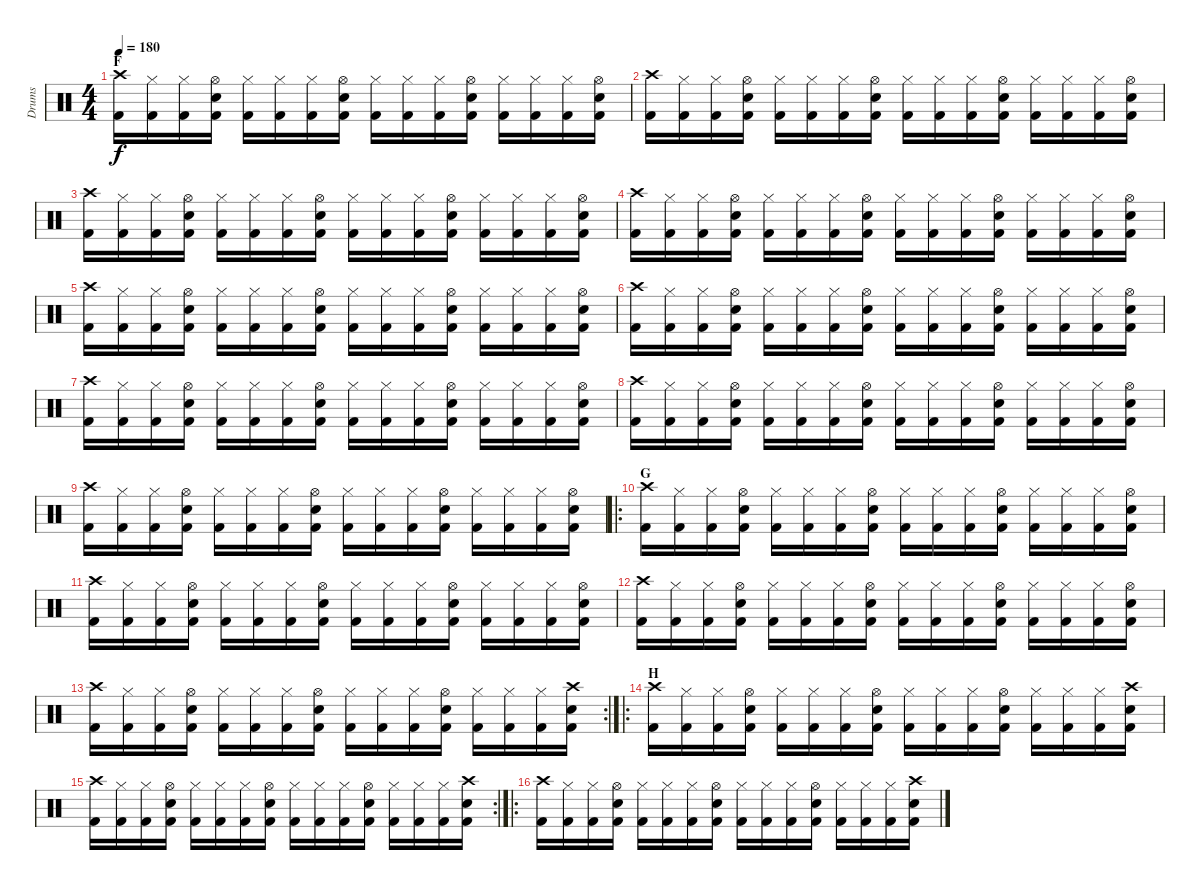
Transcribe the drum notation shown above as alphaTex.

\track ("Drums" "Drums") {instrument percussion}
\staff {score}
\articulation defaults
\ts (4 4)
\section ("" "F")
\tempo 180
\clef neutral
\ks c
("Crash high (hit)" "Kick (hit) 2").16{dy f} ("Hi-Hat (closed)" "Kick (hit) 2").16 ("Hi-Hat (closed)" "Kick (hit) 2").16 ("Hi-Hat (open)" "Snare (hit) 2" "Kick (hit) 2").16 ("Hi-Hat (closed)" "Kick (hit) 2").16 ("Hi-Hat (closed)" "Kick (hit) 2").16 ("Hi-Hat (closed)" "Kick (hit) 2").16 ("Hi-Hat (open)" "Snare (hit) 2" "Kick (hit) 2").16 ("Hi-Hat (closed)" "Kick (hit) 2").16 ("Hi-Hat (closed)" "Kick (hit) 2").16 ("Hi-Hat (closed)" "Kick (hit) 2").16 ("Hi-Hat (open)" "Snare (hit) 2" "Kick (hit) 2").16 ("Hi-Hat (closed)" "Kick (hit) 2").16 ("Hi-Hat (closed)" "Kick (hit) 2").16 ("Hi-Hat (closed)" "Kick (hit) 2").16 ("Hi-Hat (open)" "Snare (hit) 2" "Kick (hit) 2").16 |
("Crash high (hit)" "Kick (hit) 2").16 ("Hi-Hat (closed)" "Kick (hit) 2").16 ("Hi-Hat (closed)" "Kick (hit) 2").16 ("Hi-Hat (open)" "Snare (hit) 2" "Kick (hit) 2").16 ("Hi-Hat (closed)" "Kick (hit) 2").16 ("Hi-Hat (closed)" "Kick (hit) 2").16 ("Hi-Hat (closed)" "Kick (hit) 2").16 ("Hi-Hat (open)" "Snare (hit) 2" "Kick (hit) 2").16 ("Hi-Hat (closed)" "Kick (hit) 2").16 ("Hi-Hat (closed)" "Kick (hit) 2").16 ("Hi-Hat (closed)" "Kick (hit) 2").16 ("Hi-Hat (open)" "Snare (hit) 2" "Kick (hit) 2").16 ("Hi-Hat (closed)" "Kick (hit) 2").16 ("Hi-Hat (closed)" "Kick (hit) 2").16 ("Hi-Hat (closed)" "Kick (hit) 2").16 ("Hi-Hat (open)" "Snare (hit) 2" "Kick (hit) 2").16 |
("Crash high (hit)" "Kick (hit) 2").16 ("Hi-Hat (closed)" "Kick (hit) 2").16 ("Hi-Hat (closed)" "Kick (hit) 2").16 ("Hi-Hat (open)" "Snare (hit) 2" "Kick (hit) 2").16 ("Hi-Hat (closed)" "Kick (hit) 2").16 ("Hi-Hat (closed)" "Kick (hit) 2").16 ("Hi-Hat (closed)" "Kick (hit) 2").16 ("Hi-Hat (open)" "Snare (hit) 2" "Kick (hit) 2").16 ("Hi-Hat (closed)" "Kick (hit) 2").16 ("Hi-Hat (closed)" "Kick (hit) 2").16 ("Hi-Hat (closed)" "Kick (hit) 2").16 ("Hi-Hat (open)" "Snare (hit) 2" "Kick (hit) 2").16 ("Hi-Hat (closed)" "Kick (hit) 2").16 ("Hi-Hat (closed)" "Kick (hit) 2").16 ("Hi-Hat (closed)" "Kick (hit) 2").16 ("Hi-Hat (open)" "Snare (hit) 2" "Kick (hit) 2").16 |
("Crash high (hit)" "Kick (hit) 2").16 ("Hi-Hat (closed)" "Kick (hit) 2").16 ("Hi-Hat (closed)" "Kick (hit) 2").16 ("Hi-Hat (open)" "Snare (hit) 2" "Kick (hit) 2").16 ("Hi-Hat (closed)" "Kick (hit) 2").16 ("Hi-Hat (closed)" "Kick (hit) 2").16 ("Hi-Hat (closed)" "Kick (hit) 2").16 ("Hi-Hat (open)" "Snare (hit) 2" "Kick (hit) 2").16 ("Hi-Hat (closed)" "Kick (hit) 2").16 ("Hi-Hat (closed)" "Kick (hit) 2").16 ("Hi-Hat (closed)" "Kick (hit) 2").16 ("Hi-Hat (open)" "Snare (hit) 2" "Kick (hit) 2").16 ("Hi-Hat (closed)" "Kick (hit) 2").16 ("Hi-Hat (closed)" "Kick (hit) 2").16 ("Hi-Hat (closed)" "Kick (hit) 2").16 ("Hi-Hat (open)" "Snare (hit) 2" "Kick (hit) 2").16 |
("Crash high (hit)" "Kick (hit) 2").16 ("Hi-Hat (closed)" "Kick (hit) 2").16 ("Hi-Hat (closed)" "Kick (hit) 2").16 ("Hi-Hat (open)" "Snare (hit) 2" "Kick (hit) 2").16 ("Hi-Hat (closed)" "Kick (hit) 2").16 ("Hi-Hat (closed)" "Kick (hit) 2").16 ("Hi-Hat (closed)" "Kick (hit) 2").16 ("Hi-Hat (open)" "Snare (hit) 2" "Kick (hit) 2").16 ("Hi-Hat (closed)" "Kick (hit) 2").16 ("Hi-Hat (closed)" "Kick (hit) 2").16 ("Hi-Hat (closed)" "Kick (hit) 2").16 ("Hi-Hat (open)" "Snare (hit) 2" "Kick (hit) 2").16 ("Hi-Hat (closed)" "Kick (hit) 2").16 ("Hi-Hat (closed)" "Kick (hit) 2").16 ("Hi-Hat (closed)" "Kick (hit) 2").16 ("Hi-Hat (open)" "Snare (hit) 2" "Kick (hit) 2").16 |
("Crash high (hit)" "Kick (hit) 2").16 ("Hi-Hat (closed)" "Kick (hit) 2").16 ("Hi-Hat (closed)" "Kick (hit) 2").16 ("Hi-Hat (open)" "Snare (hit) 2" "Kick (hit) 2").16 ("Hi-Hat (closed)" "Kick (hit) 2").16 ("Hi-Hat (closed)" "Kick (hit) 2").16 ("Hi-Hat (closed)" "Kick (hit) 2").16 ("Hi-Hat (open)" "Snare (hit) 2" "Kick (hit) 2").16 ("Hi-Hat (closed)" "Kick (hit) 2").16 ("Hi-Hat (closed)" "Kick (hit) 2").16 ("Hi-Hat (closed)" "Kick (hit) 2").16 ("Hi-Hat (open)" "Snare (hit) 2" "Kick (hit) 2").16 ("Hi-Hat (closed)" "Kick (hit) 2").16 ("Hi-Hat (closed)" "Kick (hit) 2").16 ("Hi-Hat (closed)" "Kick (hit) 2").16 ("Hi-Hat (open)" "Snare (hit) 2" "Kick (hit) 2").16 |
("Crash high (hit)" "Kick (hit) 2").16 ("Hi-Hat (closed)" "Kick (hit) 2").16 ("Hi-Hat (closed)" "Kick (hit) 2").16 ("Hi-Hat (open)" "Snare (hit) 2" "Kick (hit) 2").16 ("Hi-Hat (closed)" "Kick (hit) 2").16 ("Hi-Hat (closed)" "Kick (hit) 2").16 ("Hi-Hat (closed)" "Kick (hit) 2").16 ("Hi-Hat (open)" "Snare (hit) 2" "Kick (hit) 2").16 ("Hi-Hat (closed)" "Kick (hit) 2").16 ("Hi-Hat (closed)" "Kick (hit) 2").16 ("Hi-Hat (closed)" "Kick (hit) 2").16 ("Hi-Hat (open)" "Snare (hit) 2" "Kick (hit) 2").16 ("Hi-Hat (closed)" "Kick (hit) 2").16 ("Hi-Hat (closed)" "Kick (hit) 2").16 ("Hi-Hat (closed)" "Kick (hit) 2").16 ("Hi-Hat (open)" "Snare (hit) 2" "Kick (hit) 2").16 |
("Crash high (hit)" "Kick (hit) 2").16 ("Hi-Hat (closed)" "Kick (hit) 2").16 ("Hi-Hat (closed)" "Kick (hit) 2").16 ("Hi-Hat (open)" "Snare (hit) 2" "Kick (hit) 2").16 ("Hi-Hat (closed)" "Kick (hit) 2").16 ("Hi-Hat (closed)" "Kick (hit) 2").16 ("Hi-Hat (closed)" "Kick (hit) 2").16 ("Hi-Hat (open)" "Snare (hit) 2" "Kick (hit) 2").16 ("Hi-Hat (closed)" "Kick (hit) 2").16 ("Hi-Hat (closed)" "Kick (hit) 2").16 ("Hi-Hat (closed)" "Kick (hit) 2").16 ("Hi-Hat (open)" "Snare (hit) 2" "Kick (hit) 2").16 ("Hi-Hat (closed)" "Kick (hit) 2").16 ("Hi-Hat (closed)" "Kick (hit) 2").16 ("Hi-Hat (closed)" "Kick (hit) 2").16 ("Hi-Hat (open)" "Snare (hit) 2" "Kick (hit) 2").16 |
("Crash high (hit)" "Kick (hit) 2").16 ("Hi-Hat (closed)" "Kick (hit) 2").16 ("Hi-Hat (closed)" "Kick (hit) 2").16 ("Hi-Hat (open)" "Snare (hit) 2" "Kick (hit) 2").16 ("Hi-Hat (closed)" "Kick (hit) 2").16 ("Hi-Hat (closed)" "Kick (hit) 2").16 ("Hi-Hat (closed)" "Kick (hit) 2").16 ("Hi-Hat (open)" "Snare (hit) 2" "Kick (hit) 2").16 ("Hi-Hat (closed)" "Kick (hit) 2").16 ("Hi-Hat (closed)" "Kick (hit) 2").16 ("Hi-Hat (closed)" "Kick (hit) 2").16 ("Hi-Hat (open)" "Snare (hit) 2" "Kick (hit) 2").16 ("Hi-Hat (closed)" "Kick (hit) 2").16 ("Hi-Hat (closed)" "Kick (hit) 2").16 ("Hi-Hat (closed)" "Kick (hit) 2").16 ("Hi-Hat (open)" "Snare (hit) 2" "Kick (hit) 2").16 |
\ro
\section ("" "G")
("Crash high (hit)" "Kick (hit) 2").16 ("Hi-Hat (closed)" "Kick (hit) 2").16 ("Hi-Hat (closed)" "Kick (hit) 2").16 ("Hi-Hat (open)" "Snare (hit) 2" "Kick (hit) 2").16 ("Hi-Hat (closed)" "Kick (hit) 2").16 ("Hi-Hat (closed)" "Kick (hit) 2").16 ("Hi-Hat (closed)" "Kick (hit) 2").16 ("Hi-Hat (open)" "Snare (hit) 2" "Kick (hit) 2").16 ("Hi-Hat (closed)" "Kick (hit) 2").16 ("Hi-Hat (closed)" "Kick (hit) 2").16 ("Hi-Hat (closed)" "Kick (hit) 2").16 ("Hi-Hat (open)" "Snare (hit) 2" "Kick (hit) 2").16 ("Hi-Hat (closed)" "Kick (hit) 2").16 ("Hi-Hat (closed)" "Kick (hit) 2").16 ("Hi-Hat (closed)" "Kick (hit) 2").16 ("Hi-Hat (open)" "Snare (hit) 2" "Kick (hit) 2").16 |
("Crash high (hit)" "Kick (hit) 2").16 ("Hi-Hat (closed)" "Kick (hit) 2").16 ("Hi-Hat (closed)" "Kick (hit) 2").16 ("Hi-Hat (open)" "Snare (hit) 2" "Kick (hit) 2").16 ("Hi-Hat (closed)" "Kick (hit) 2").16 ("Hi-Hat (closed)" "Kick (hit) 2").16 ("Hi-Hat (closed)" "Kick (hit) 2").16 ("Hi-Hat (open)" "Snare (hit) 2" "Kick (hit) 2").16 ("Hi-Hat (closed)" "Kick (hit) 2").16 ("Hi-Hat (closed)" "Kick (hit) 2").16 ("Hi-Hat (closed)" "Kick (hit) 2").16 ("Hi-Hat (open)" "Snare (hit) 2" "Kick (hit) 2").16 ("Hi-Hat (closed)" "Kick (hit) 2").16 ("Hi-Hat (closed)" "Kick (hit) 2").16 ("Hi-Hat (closed)" "Kick (hit) 2").16 ("Hi-Hat (open)" "Snare (hit) 2" "Kick (hit) 2").16 |
("Crash high (hit)" "Kick (hit) 2").16 ("Hi-Hat (closed)" "Kick (hit) 2").16 ("Hi-Hat (closed)" "Kick (hit) 2").16 ("Hi-Hat (open)" "Snare (hit) 2" "Kick (hit) 2").16 ("Hi-Hat (closed)" "Kick (hit) 2").16 ("Hi-Hat (closed)" "Kick (hit) 2").16 ("Hi-Hat (closed)" "Kick (hit) 2").16 ("Hi-Hat (open)" "Snare (hit) 2" "Kick (hit) 2").16 ("Hi-Hat (closed)" "Kick (hit) 2").16 ("Hi-Hat (closed)" "Kick (hit) 2").16 ("Hi-Hat (closed)" "Kick (hit) 2").16 ("Hi-Hat (open)" "Snare (hit) 2" "Kick (hit) 2").16 ("Hi-Hat (closed)" "Kick (hit) 2").16 ("Hi-Hat (closed)" "Kick (hit) 2").16 ("Hi-Hat (closed)" "Kick (hit) 2").16 ("Hi-Hat (open)" "Snare (hit) 2" "Kick (hit) 2").16 |
\rc 2
("Crash high (hit)" "Kick (hit) 2").16 ("Hi-Hat (closed)" "Kick (hit) 2").16 ("Hi-Hat (closed)" "Kick (hit) 2").16 ("Hi-Hat (open)" "Snare (hit) 2" "Kick (hit) 2").16 ("Hi-Hat (closed)" "Kick (hit) 2").16 ("Hi-Hat (closed)" "Kick (hit) 2").16 ("Hi-Hat (closed)" "Kick (hit) 2").16 ("Hi-Hat (open)" "Snare (hit) 2" "Kick (hit) 2").16 ("Hi-Hat (closed)" "Kick (hit) 2").16 ("Hi-Hat (closed)" "Kick (hit) 2").16 ("Hi-Hat (closed)" "Kick (hit) 2").16 ("Hi-Hat (open)" "Snare (hit) 2" "Kick (hit) 2").16 ("Hi-Hat (closed)" "Kick (hit) 2").16 ("Hi-Hat (closed)" "Kick (hit) 2").16 ("Hi-Hat (closed)" "Kick (hit) 2").16 ("Crash high (hit)" "Snare (hit) 2" "Kick (hit) 2").16 |
\ro
\section ("" "H")
("Crash high (hit)" "Kick (hit) 2").16 ("Hi-Hat (closed)" "Kick (hit) 2").16 ("Hi-Hat (closed)" "Kick (hit) 2").16 ("Hi-Hat (open)" "Snare (hit) 2" "Kick (hit) 2").16 ("Hi-Hat (closed)" "Kick (hit) 2").16 ("Hi-Hat (closed)" "Kick (hit) 2").16 ("Hi-Hat (closed)" "Kick (hit) 2").16 ("Hi-Hat (open)" "Snare (hit) 2" "Kick (hit) 2").16 ("Hi-Hat (closed)" "Kick (hit) 2").16 ("Hi-Hat (closed)" "Kick (hit) 2").16 ("Hi-Hat (closed)" "Kick (hit) 2").16 ("Hi-Hat (open)" "Snare (hit) 2" "Kick (hit) 2").16 ("Hi-Hat (closed)" "Kick (hit) 2").16 ("Hi-Hat (closed)" "Kick (hit) 2").16 ("Hi-Hat (closed)" "Kick (hit) 2").16 ("Crash high (hit)" "Snare (hit) 2" "Kick (hit) 2").16 |
\rc 2
("Crash high (hit)" "Kick (hit) 2").16 ("Hi-Hat (closed)" "Kick (hit) 2").16 ("Hi-Hat (closed)" "Kick (hit) 2").16 ("Hi-Hat (open)" "Snare (hit) 2" "Kick (hit) 2").16 ("Hi-Hat (closed)" "Kick (hit) 2").16 ("Hi-Hat (closed)" "Kick (hit) 2").16 ("Hi-Hat (closed)" "Kick (hit) 2").16 ("Hi-Hat (open)" "Snare (hit) 2" "Kick (hit) 2").16 ("Hi-Hat (closed)" "Kick (hit) 2").16 ("Hi-Hat (closed)" "Kick (hit) 2").16 ("Hi-Hat (closed)" "Kick (hit) 2").16 ("Hi-Hat (open)" "Snare (hit) 2" "Kick (hit) 2").16 ("Hi-Hat (closed)" "Kick (hit) 2").16 ("Hi-Hat (closed)" "Kick (hit) 2").16 ("Hi-Hat (closed)" "Kick (hit) 2").16 ("Crash high (hit)" "Snare (hit) 2" "Kick (hit) 2").16 |
\ro
("Crash high (hit)" "Kick (hit) 2").16 ("Hi-Hat (closed)" "Kick (hit) 2").16 ("Hi-Hat (closed)" "Kick (hit) 2").16 ("Hi-Hat (open)" "Snare (hit) 2" "Kick (hit) 2").16 ("Hi-Hat (closed)" "Kick (hit) 2").16 ("Hi-Hat (closed)" "Kick (hit) 2").16 ("Hi-Hat (closed)" "Kick (hit) 2").16 ("Hi-Hat (open)" "Snare (hit) 2" "Kick (hit) 2").16 ("Hi-Hat (closed)" "Kick (hit) 2").16 ("Hi-Hat (closed)" "Kick (hit) 2").16 ("Hi-Hat (closed)" "Kick (hit) 2").16 ("Hi-Hat (open)" "Snare (hit) 2" "Kick (hit) 2").16 ("Hi-Hat (closed)" "Kick (hit) 2").16 ("Hi-Hat (closed)" "Kick (hit) 2").16 ("Hi-Hat (closed)" "Kick (hit) 2").16 ("Crash high (hit)" "Snare (hit) 2" "Kick (hit) 2").16
